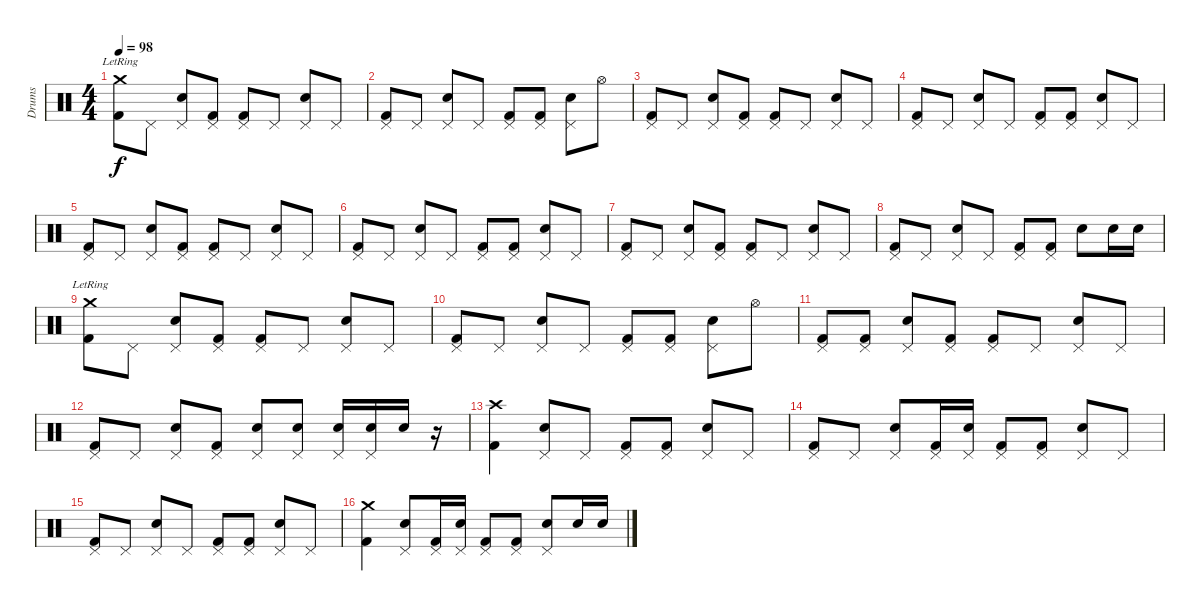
\track ("Drums" "Drums") {instrument percussion}
\staff {score}
\articulation defaults
\ts (4 4)
\tempo 98
\clef neutral
\ks c
("Crash medium (hit)"{lr} "Kick (hit) 2").8{dy f} "Pedal Hi-Hat (hit)".8 ("Pedal Hi-Hat (hit)" "Snare (hit) 2").8 ("Pedal Hi-Hat (hit)" "Kick (hit) 2").8 ("Pedal Hi-Hat (hit)" "Kick (hit) 2").8 "Pedal Hi-Hat (hit)".8 ("Pedal Hi-Hat (hit)" "Snare (hit) 2").8 "Pedal Hi-Hat (hit)".8 |
("Pedal Hi-Hat (hit)" "Kick (hit) 2").8 "Pedal Hi-Hat (hit)".8 ("Pedal Hi-Hat (hit)" "Snare (hit) 2").8 "Pedal Hi-Hat (hit)".8 ("Pedal Hi-Hat (hit)" "Kick (hit) 2").8 ("Pedal Hi-Hat (hit)" "Kick (hit) 2").8 ("Pedal Hi-Hat (hit)" "Snare (hit) 2").8 "Hi-Hat (open)".8 |
("Pedal Hi-Hat (hit)" "Kick (hit) 2").8 "Pedal Hi-Hat (hit)".8 ("Pedal Hi-Hat (hit)" "Snare (hit) 2").8 ("Pedal Hi-Hat (hit)" "Kick (hit) 2").8 ("Pedal Hi-Hat (hit)" "Kick (hit) 2").8 "Pedal Hi-Hat (hit)".8 ("Pedal Hi-Hat (hit)" "Snare (hit) 2").8 "Pedal Hi-Hat (hit)".8 |
("Pedal Hi-Hat (hit)" "Kick (hit) 2").8 "Pedal Hi-Hat (hit)".8 ("Pedal Hi-Hat (hit)" "Snare (hit) 2").8 "Pedal Hi-Hat (hit)".8 ("Pedal Hi-Hat (hit)" "Kick (hit) 2").8 ("Pedal Hi-Hat (hit)" "Kick (hit) 2").8 ("Pedal Hi-Hat (hit)" "Snare (hit) 2").8 "Pedal Hi-Hat (hit)".8 |
("Pedal Hi-Hat (hit)" "Kick (hit) 2").8 "Pedal Hi-Hat (hit)".8 ("Pedal Hi-Hat (hit)" "Snare (hit) 2").8 ("Pedal Hi-Hat (hit)" "Kick (hit) 2").8 ("Pedal Hi-Hat (hit)" "Kick (hit) 2").8 "Pedal Hi-Hat (hit)".8 ("Pedal Hi-Hat (hit)" "Snare (hit) 2").8 "Pedal Hi-Hat (hit)".8 |
("Pedal Hi-Hat (hit)" "Kick (hit) 2").8 "Pedal Hi-Hat (hit)".8 ("Pedal Hi-Hat (hit)" "Snare (hit) 2").8 "Pedal Hi-Hat (hit)".8 ("Pedal Hi-Hat (hit)" "Kick (hit) 2").8 ("Pedal Hi-Hat (hit)" "Kick (hit) 2").8 ("Pedal Hi-Hat (hit)" "Snare (hit) 2").8 "Pedal Hi-Hat (hit)".8 |
("Pedal Hi-Hat (hit)" "Kick (hit) 2").8 "Pedal Hi-Hat (hit)".8 ("Pedal Hi-Hat (hit)" "Snare (hit) 2").8 ("Pedal Hi-Hat (hit)" "Kick (hit) 2").8 ("Pedal Hi-Hat (hit)" "Kick (hit) 2").8 "Pedal Hi-Hat (hit)".8 ("Pedal Hi-Hat (hit)" "Snare (hit) 2").8 "Pedal Hi-Hat (hit)".8 |
("Pedal Hi-Hat (hit)" "Kick (hit) 2").8 "Pedal Hi-Hat (hit)".8 ("Pedal Hi-Hat (hit)" "Snare (hit) 2").8 "Pedal Hi-Hat (hit)".8 ("Pedal Hi-Hat (hit)" "Kick (hit) 2").8 ("Pedal Hi-Hat (hit)" "Kick (hit) 2").8 "Snare (hit) 2".8 "Snare (hit) 2".16 "Snare (hit) 2".16 |
("Crash medium (hit)"{lr} "Kick (hit) 2").8 "Pedal Hi-Hat (hit)".8 ("Pedal Hi-Hat (hit)" "Snare (hit) 2").8 ("Pedal Hi-Hat (hit)" "Kick (hit) 2").8 ("Pedal Hi-Hat (hit)" "Kick (hit) 2").8 "Pedal Hi-Hat (hit)".8 ("Pedal Hi-Hat (hit)" "Snare (hit) 2").8 "Pedal Hi-Hat (hit)".8 |
("Pedal Hi-Hat (hit)" "Kick (hit) 2").8 "Pedal Hi-Hat (hit)".8 ("Pedal Hi-Hat (hit)" "Snare (hit) 2").8 "Pedal Hi-Hat (hit)".8 ("Pedal Hi-Hat (hit)" "Kick (hit) 2").8 ("Pedal Hi-Hat (hit)" "Kick (hit) 2").8 ("Pedal Hi-Hat (hit)" "Snare (hit) 2").8 "Hi-Hat (open)".8 |
("Pedal Hi-Hat (hit)" "Kick (hit) 2").8 ("Pedal Hi-Hat (hit)" "Kick (hit) 2").8 ("Pedal Hi-Hat (hit)" "Snare (hit) 2").8 ("Pedal Hi-Hat (hit)" "Kick (hit) 2").8 ("Pedal Hi-Hat (hit)" "Kick (hit) 2").8 "Pedal Hi-Hat (hit)".8 ("Pedal Hi-Hat (hit)" "Snare (hit) 2").8 "Pedal Hi-Hat (hit)".8 |
("Pedal Hi-Hat (hit)" "Kick (hit) 2").8 "Pedal Hi-Hat (hit)".8 ("Pedal Hi-Hat (hit)" "Snare (hit) 2").8 ("Pedal Hi-Hat (hit)" "Kick (hit) 2").8 ("Pedal Hi-Hat (hit)" "Snare (hit) 2").8 ("Pedal Hi-Hat (hit)" "Snare (hit) 2").8 ("Pedal Hi-Hat (hit)" "Snare (hit) 2").16 ("Pedal Hi-Hat (hit)" "Snare (hit) 2").16 "Snare (hit) 2".16 r.16 |
("Crash high (hit)" "Kick (hit) 2").4 ("Pedal Hi-Hat (hit)" "Snare (hit) 2").8 "Pedal Hi-Hat (hit)".8 ("Pedal Hi-Hat (hit)" "Kick (hit) 2").8 ("Pedal Hi-Hat (hit)" "Kick (hit) 2").8 ("Pedal Hi-Hat (hit)" "Snare (hit) 2").8 "Pedal Hi-Hat (hit)".8 |
("Pedal Hi-Hat (hit)" "Kick (hit) 2").8 "Pedal Hi-Hat (hit)".8 ("Pedal Hi-Hat (hit)" "Snare (hit) 2").8 ("Pedal Hi-Hat (hit)" "Kick (hit) 2").16 ("Pedal Hi-Hat (hit)" "Snare (hit) 2").16 ("Pedal Hi-Hat (hit)" "Kick (hit) 2").8 ("Pedal Hi-Hat (hit)" "Kick (hit) 2").8 ("Pedal Hi-Hat (hit)" "Snare (hit) 2").8 "Pedal Hi-Hat (hit)".8 |
("Pedal Hi-Hat (hit)" "Kick (hit) 2").8 "Pedal Hi-Hat (hit)".8 ("Pedal Hi-Hat (hit)" "Snare (hit) 2").8 "Pedal Hi-Hat (hit)".8 ("Pedal Hi-Hat (hit)" "Kick (hit) 2").8 ("Pedal Hi-Hat (hit)" "Kick (hit) 2").8 ("Pedal Hi-Hat (hit)" "Snare (hit) 2").8 "Pedal Hi-Hat (hit)".8 |
("Crash medium (hit)" "Kick (hit) 2").4 ("Pedal Hi-Hat (hit)" "Snare (hit) 2").8 ("Pedal Hi-Hat (hit)" "Kick (hit) 2").16 ("Pedal Hi-Hat (hit)" "Snare (hit) 2").16 ("Pedal Hi-Hat (hit)" "Kick (hit) 2").8 ("Pedal Hi-Hat (hit)" "Kick (hit) 2").8 ("Pedal Hi-Hat (hit)" "Snare (hit) 2").8 "Snare (hit) 2".16 "Snare (hit) 2".16
